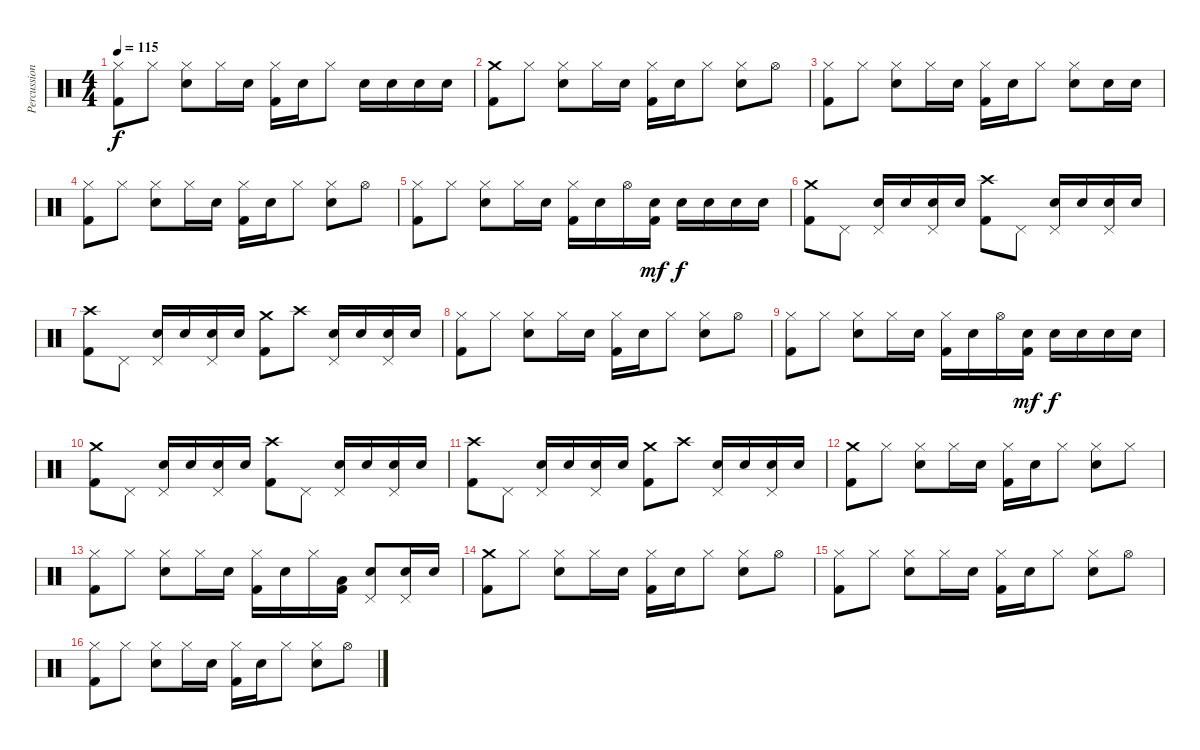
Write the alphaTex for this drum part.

\track ("Percussion" "Percussion") {instrument percussion}
\staff {score}
\articulation defaults
\ts (4 4)
\tempo 115
\clef neutral
\ks c
("Hi-Hat (closed)" "Kick (hit) 2").8{dy f} "Hi-Hat (closed)".8 ("Hi-Hat (closed)" "Electric Snare (hit)").8 "Hi-Hat (closed)".16 "Electric Snare (hit)".16 ("Hi-Hat (closed)" "Kick (hit) 2").16 "Electric Snare (hit)".16 "Hi-Hat (closed)".8 "Electric Snare (hit)".16 "Electric Snare (hit)".16 "Electric Snare (hit)".16 "Electric Snare (hit)".16 |
("Crash medium (hit)" "Kick (hit) 2").8 "Hi-Hat (closed)".8 ("Hi-Hat (closed)" "Electric Snare (hit)").8 "Hi-Hat (closed)".16 "Electric Snare (hit)".16 ("Hi-Hat (closed)" "Kick (hit) 2").16 "Electric Snare (hit)".16 "Hi-Hat (closed)".8 ("Hi-Hat (closed)" "Electric Snare (hit)").8 "Hi-Hat (open)".8 |
("Hi-Hat (closed)" "Kick (hit) 2").8 "Hi-Hat (closed)".8 ("Hi-Hat (closed)" "Electric Snare (hit)").8 "Hi-Hat (closed)".16 "Electric Snare (hit)".16 ("Hi-Hat (closed)" "Kick (hit) 2").16 "Electric Snare (hit)".16 "Hi-Hat (closed)".8 ("Hi-Hat (closed)" "Electric Snare (hit)").8 "Electric Snare (hit)".16 "Electric Snare (hit)".16 |
("Hi-Hat (closed)" "Kick (hit) 2").8 "Hi-Hat (closed)".8 ("Hi-Hat (closed)" "Electric Snare (hit)").8 "Hi-Hat (closed)".16 "Electric Snare (hit)".16 ("Hi-Hat (closed)" "Kick (hit) 2").16 "Electric Snare (hit)".16 "Hi-Hat (closed)".8 ("Hi-Hat (closed)" "Electric Snare (hit)").8 "Hi-Hat (open)".8 |
("Hi-Hat (closed)" "Kick (hit) 2").8 "Hi-Hat (closed)".8 ("Hi-Hat (closed)" "Electric Snare (hit)").8 "Hi-Hat (closed)".16 "Electric Snare (hit)".16 ("Hi-Hat (closed)" "Kick (hit) 2").16 "Electric Snare (hit)".16 "Hi-Hat (open)".16 ("Electric Snare (hit)" "Kick (hit) 2").16{dy mf} "Electric Snare (hit)".16{dy f} "Electric Snare (hit)".16 "Electric Snare (hit)".16 "Electric Snare (hit)".16 |
("Crash medium (hit)" "Kick (hit) 2").8 "Pedal Hi-Hat (hit)".8 ("Pedal Hi-Hat (hit)" "Electric Snare (hit)").16 "Electric Snare (hit)".16 ("Pedal Hi-Hat (hit)" "Electric Snare (hit)").16 "Electric Snare (hit)".16 ("Crash high (hit)" "Kick (hit) 2").8 "Pedal Hi-Hat (hit)".8 ("Pedal Hi-Hat (hit)" "Electric Snare (hit)").16 "Electric Snare (hit)".16 ("Pedal Hi-Hat (hit)" "Electric Snare (hit)").16 "Electric Snare (hit)".16 |
("Crash high (hit)" "Kick (hit) 2").8 "Pedal Hi-Hat (hit)".8 ("Pedal Hi-Hat (hit)" "Electric Snare (hit)").16 "Electric Snare (hit)".16 ("Pedal Hi-Hat (hit)" "Electric Snare (hit)").16 "Electric Snare (hit)".16 ("Crash medium (hit)" "Kick (hit) 2").8 "Crash high (hit)".8 ("Pedal Hi-Hat (hit)" "Electric Snare (hit)").16 "Electric Snare (hit)".16 ("Pedal Hi-Hat (hit)" "Electric Snare (hit)").16 "Electric Snare (hit)".16 |
("Hi-Hat (closed)" "Kick (hit) 2").8 "Hi-Hat (closed)".8 ("Hi-Hat (closed)" "Electric Snare (hit)").8 "Hi-Hat (closed)".16 "Electric Snare (hit)".16 ("Hi-Hat (closed)" "Kick (hit) 2").16 "Electric Snare (hit)".16 "Hi-Hat (closed)".8 ("Hi-Hat (closed)" "Electric Snare (hit)").8 "Hi-Hat (open)".8 |
("Hi-Hat (closed)" "Kick (hit) 2").8 "Hi-Hat (closed)".8 ("Hi-Hat (closed)" "Electric Snare (hit)").8 "Hi-Hat (closed)".16 "Electric Snare (hit)".16 ("Hi-Hat (closed)" "Kick (hit) 2").16 "Electric Snare (hit)".16 "Hi-Hat (open)".16 ("Electric Snare (hit)" "Kick (hit) 2").16{dy mf} "Electric Snare (hit)".16{dy f} "Electric Snare (hit)".16 "Electric Snare (hit)".16 "Electric Snare (hit)".16 |
("Crash medium (hit)" "Kick (hit) 2").8 "Pedal Hi-Hat (hit)".8 ("Pedal Hi-Hat (hit)" "Electric Snare (hit)").16 "Electric Snare (hit)".16 ("Pedal Hi-Hat (hit)" "Electric Snare (hit)").16 "Electric Snare (hit)".16 ("Crash high (hit)" "Kick (hit) 2").8 "Pedal Hi-Hat (hit)".8 ("Pedal Hi-Hat (hit)" "Electric Snare (hit)").16 "Electric Snare (hit)".16 ("Pedal Hi-Hat (hit)" "Electric Snare (hit)").16 "Electric Snare (hit)".16 |
("Crash high (hit)" "Kick (hit) 2").8 "Pedal Hi-Hat (hit)".8 ("Pedal Hi-Hat (hit)" "Electric Snare (hit)").16 "Electric Snare (hit)".16 ("Pedal Hi-Hat (hit)" "Electric Snare (hit)").16 "Electric Snare (hit)".16 ("Crash medium (hit)" "Kick (hit) 2").8 "Crash high (hit)".8 ("Pedal Hi-Hat (hit)" "Electric Snare (hit)").16 "Electric Snare (hit)".16 ("Pedal Hi-Hat (hit)" "Electric Snare (hit)").16 "Electric Snare (hit)".16 |
("Crash medium (hit)" "Kick (hit) 2").8 "Hi-Hat (closed)".8 ("Hi-Hat (closed)" "Electric Snare (hit)").8 "Hi-Hat (closed)".16 "Electric Snare (hit)".16 ("Hi-Hat (closed)" "Kick (hit) 2").16 "Electric Snare (hit)".16 "Hi-Hat (closed)".8 ("Hi-Hat (closed)" "Electric Snare (hit)").8 "Hi-Hat (closed)".8 |
("Hi-Hat (closed)" "Kick (hit) 2").8 "Hi-Hat (closed)".8 ("Hi-Hat (closed)" "Electric Snare (hit)").8 "Hi-Hat (closed)".16 "Electric Snare (hit)".16 ("Hi-Hat (closed)" "Kick (hit) 2").16 "Electric Snare (hit)".16 "Hi-Hat (closed)".16 ("Low Floor Tom (hit)" "Kick (hit) 2").16 ("Pedal Hi-Hat (hit)" "Electric Snare (hit)").8 ("Pedal Hi-Hat (hit)" "Electric Snare (hit)").16 "Electric Snare (hit)".16 |
("Crash medium (hit)" "Kick (hit) 2").8 "Hi-Hat (closed)".8 ("Hi-Hat (closed)" "Electric Snare (hit)").8 "Hi-Hat (closed)".16 "Electric Snare (hit)".16 ("Hi-Hat (closed)" "Kick (hit) 2").16 "Electric Snare (hit)".16 "Hi-Hat (closed)".8 ("Hi-Hat (closed)" "Electric Snare (hit)").8 "Hi-Hat (open)".8 |
("Hi-Hat (closed)" "Kick (hit) 2").8 "Hi-Hat (closed)".8 ("Hi-Hat (closed)" "Electric Snare (hit)").8 "Hi-Hat (closed)".16 "Electric Snare (hit)".16 ("Hi-Hat (closed)" "Kick (hit) 2").16 "Electric Snare (hit)".16 "Hi-Hat (closed)".8 ("Hi-Hat (closed)" "Electric Snare (hit)").8 "Hi-Hat (open)".8 |
("Hi-Hat (closed)" "Kick (hit) 2").8 "Hi-Hat (closed)".8 ("Hi-Hat (closed)" "Electric Snare (hit)").8 "Hi-Hat (closed)".16 "Electric Snare (hit)".16 ("Hi-Hat (closed)" "Kick (hit) 2").16 "Electric Snare (hit)".16 "Hi-Hat (closed)".8 ("Hi-Hat (closed)" "Electric Snare (hit)").8 "Hi-Hat (open)".8
